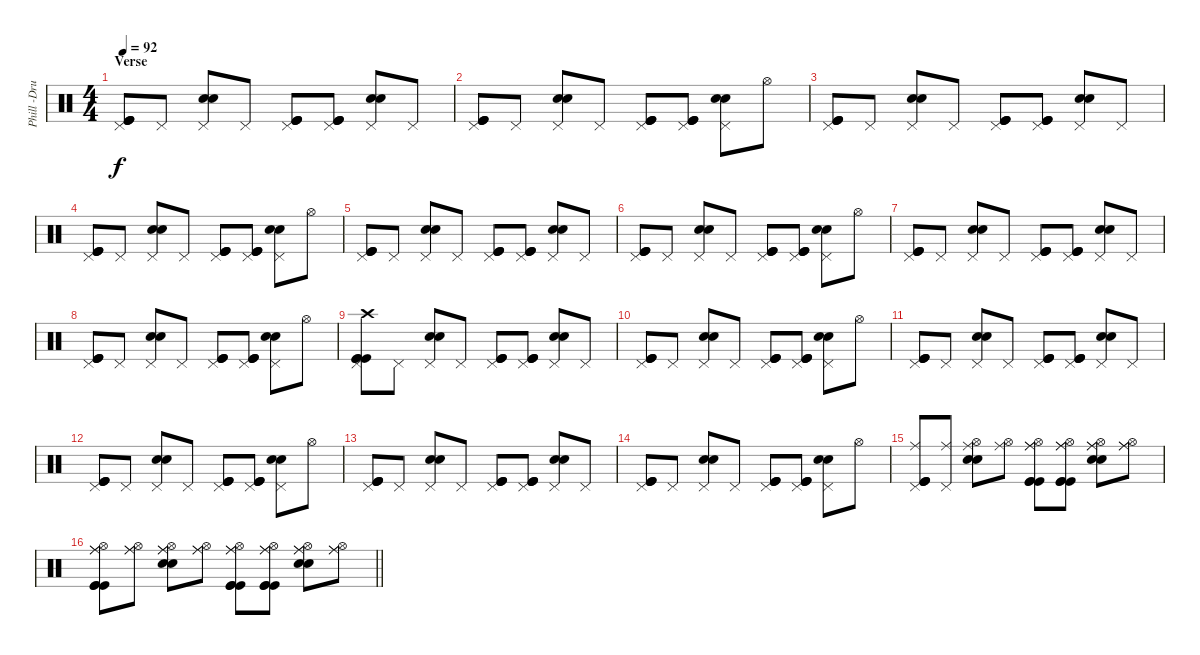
\track ("Phill -Drums" "Phill -Dru") {instrument percussion}
\staff {score}
\articulation defaults
\ts (4 4)
\section ("" "Verse")
\tempo 92
\clef neutral
\ks c
("Pedal Hi-Hat (hit)" "Kick (hit)" "Kick (hit)" "Kick (hit)").8{dy f} "Pedal Hi-Hat (hit)".8 ("Pedal Hi-Hat (hit)" "Snare (hit) 2" "Snare (hit) 2").8 "Pedal Hi-Hat (hit)".8 ("Pedal Hi-Hat (hit)" "Kick (hit)" "Kick (hit)" "Kick (hit)").8 ("Pedal Hi-Hat (hit)" "Kick (hit)" "Kick (hit)" "Kick (hit)").8 ("Pedal Hi-Hat (hit)" "Snare (hit) 2" "Snare (hit) 2").8 "Pedal Hi-Hat (hit)".8 |
("Pedal Hi-Hat (hit)" "Kick (hit)" "Kick (hit)" "Kick (hit)").8 "Pedal Hi-Hat (hit)".8 ("Pedal Hi-Hat (hit)" "Snare (hit) 2" "Snare (hit) 2").8 "Pedal Hi-Hat (hit)".8 ("Pedal Hi-Hat (hit)" "Kick (hit)" "Kick (hit)" "Kick (hit)").8 ("Pedal Hi-Hat (hit)" "Kick (hit)" "Kick (hit)" "Kick (hit)").8 ("Pedal Hi-Hat (hit)" "Snare (hit) 2" "Snare (hit) 2").8 "Hi-Hat (open)".8 |
("Pedal Hi-Hat (hit)" "Kick (hit)" "Kick (hit)" "Kick (hit)").8 "Pedal Hi-Hat (hit)".8 ("Pedal Hi-Hat (hit)" "Snare (hit) 2" "Snare (hit) 2").8 "Pedal Hi-Hat (hit)".8 ("Pedal Hi-Hat (hit)" "Kick (hit)" "Kick (hit)" "Kick (hit)").8 ("Pedal Hi-Hat (hit)" "Kick (hit)" "Kick (hit)" "Kick (hit)").8 ("Pedal Hi-Hat (hit)" "Snare (hit) 2" "Snare (hit) 2").8 "Pedal Hi-Hat (hit)".8 |
("Pedal Hi-Hat (hit)" "Kick (hit)" "Kick (hit)" "Kick (hit)").8 "Pedal Hi-Hat (hit)".8 ("Pedal Hi-Hat (hit)" "Snare (hit) 2" "Snare (hit) 2").8 "Pedal Hi-Hat (hit)".8 ("Pedal Hi-Hat (hit)" "Kick (hit)" "Kick (hit)" "Kick (hit)").8 ("Pedal Hi-Hat (hit)" "Kick (hit)" "Kick (hit)" "Kick (hit)").8 ("Pedal Hi-Hat (hit)" "Snare (hit) 2" "Snare (hit) 2").8 "Hi-Hat (open)".8 |
("Pedal Hi-Hat (hit)" "Kick (hit)" "Kick (hit)" "Kick (hit)").8 "Pedal Hi-Hat (hit)".8 ("Pedal Hi-Hat (hit)" "Snare (hit) 2" "Snare (hit) 2").8 "Pedal Hi-Hat (hit)".8 ("Pedal Hi-Hat (hit)" "Kick (hit)" "Kick (hit)" "Kick (hit)").8 ("Pedal Hi-Hat (hit)" "Kick (hit)" "Kick (hit)" "Kick (hit)").8 ("Pedal Hi-Hat (hit)" "Snare (hit) 2" "Snare (hit) 2").8 "Pedal Hi-Hat (hit)".8 |
("Pedal Hi-Hat (hit)" "Kick (hit)" "Kick (hit)" "Kick (hit)").8 "Pedal Hi-Hat (hit)".8 ("Pedal Hi-Hat (hit)" "Snare (hit) 2" "Snare (hit) 2").8 "Pedal Hi-Hat (hit)".8 ("Pedal Hi-Hat (hit)" "Kick (hit)" "Kick (hit)" "Kick (hit)").8 ("Pedal Hi-Hat (hit)" "Kick (hit)" "Kick (hit)" "Kick (hit)").8 ("Pedal Hi-Hat (hit)" "Snare (hit) 2" "Snare (hit) 2").8 "Hi-Hat (open)".8 |
("Pedal Hi-Hat (hit)" "Kick (hit)" "Kick (hit)" "Kick (hit)").8 "Pedal Hi-Hat (hit)".8 ("Pedal Hi-Hat (hit)" "Snare (hit) 2" "Snare (hit) 2").8 "Pedal Hi-Hat (hit)".8 ("Pedal Hi-Hat (hit)" "Kick (hit)" "Kick (hit)" "Kick (hit)").8 ("Pedal Hi-Hat (hit)" "Kick (hit)" "Kick (hit)" "Kick (hit)").8 ("Pedal Hi-Hat (hit)" "Snare (hit) 2" "Snare (hit) 2").8 "Pedal Hi-Hat (hit)".8 |
("Pedal Hi-Hat (hit)" "Kick (hit)" "Kick (hit)" "Kick (hit)").8 "Pedal Hi-Hat (hit)".8 ("Pedal Hi-Hat (hit)" "Snare (hit) 2" "Snare (hit) 2").8 "Pedal Hi-Hat (hit)".8 ("Pedal Hi-Hat (hit)" "Kick (hit)" "Kick (hit)" "Kick (hit)").8 ("Pedal Hi-Hat (hit)" "Kick (hit)" "Kick (hit)" "Kick (hit)").8 ("Pedal Hi-Hat (hit)" "Snare (hit) 2" "Snare (hit) 2").8 "Hi-Hat (open)".8 |
("Pedal Hi-Hat (hit)" "Crash high (hit)" "Kick (hit)" "Kick (hit)" "Kick (hit)").8 "Pedal Hi-Hat (hit)".8 ("Pedal Hi-Hat (hit)" "Snare (hit) 2" "Snare (hit) 2").8 "Pedal Hi-Hat (hit)".8 ("Pedal Hi-Hat (hit)" "Kick (hit)" "Kick (hit)" "Kick (hit)").8 ("Pedal Hi-Hat (hit)" "Kick (hit)" "Kick (hit)" "Kick (hit)").8 ("Pedal Hi-Hat (hit)" "Snare (hit) 2" "Snare (hit) 2").8 "Pedal Hi-Hat (hit)".8 |
("Pedal Hi-Hat (hit)" "Kick (hit)" "Kick (hit)" "Kick (hit)").8 "Pedal Hi-Hat (hit)".8 ("Pedal Hi-Hat (hit)" "Snare (hit) 2" "Snare (hit) 2").8 "Pedal Hi-Hat (hit)".8 ("Pedal Hi-Hat (hit)" "Kick (hit)" "Kick (hit)" "Kick (hit)").8 ("Pedal Hi-Hat (hit)" "Kick (hit)" "Kick (hit)" "Kick (hit)").8 ("Pedal Hi-Hat (hit)" "Snare (hit) 2" "Snare (hit) 2").8 "Hi-Hat (open)".8 |
("Pedal Hi-Hat (hit)" "Kick (hit)" "Kick (hit)" "Kick (hit)").8 "Pedal Hi-Hat (hit)".8 ("Pedal Hi-Hat (hit)" "Snare (hit) 2" "Snare (hit) 2").8 "Pedal Hi-Hat (hit)".8 ("Pedal Hi-Hat (hit)" "Kick (hit)" "Kick (hit)" "Kick (hit)").8 ("Pedal Hi-Hat (hit)" "Kick (hit)" "Kick (hit)" "Kick (hit)").8 ("Pedal Hi-Hat (hit)" "Snare (hit) 2" "Snare (hit) 2").8 "Pedal Hi-Hat (hit)".8 |
("Pedal Hi-Hat (hit)" "Kick (hit)" "Kick (hit)" "Kick (hit)").8 "Pedal Hi-Hat (hit)".8 ("Pedal Hi-Hat (hit)" "Snare (hit) 2" "Snare (hit) 2").8 "Pedal Hi-Hat (hit)".8 ("Pedal Hi-Hat (hit)" "Kick (hit)" "Kick (hit)" "Kick (hit)").8 ("Pedal Hi-Hat (hit)" "Kick (hit)" "Kick (hit)" "Kick (hit)").8 ("Pedal Hi-Hat (hit)" "Snare (hit) 2" "Snare (hit) 2").8 "Hi-Hat (open)".8 |
("Pedal Hi-Hat (hit)" "Kick (hit)" "Kick (hit)" "Kick (hit)").8 "Pedal Hi-Hat (hit)".8 ("Pedal Hi-Hat (hit)" "Snare (hit) 2" "Snare (hit) 2").8 "Pedal Hi-Hat (hit)".8 ("Pedal Hi-Hat (hit)" "Kick (hit)" "Kick (hit)" "Kick (hit)").8 ("Pedal Hi-Hat (hit)" "Kick (hit)" "Kick (hit)" "Kick (hit)").8 ("Pedal Hi-Hat (hit)" "Snare (hit) 2" "Snare (hit) 2").8 "Pedal Hi-Hat (hit)".8 |
("Pedal Hi-Hat (hit)" "Kick (hit)" "Kick (hit)" "Kick (hit)").8 "Pedal Hi-Hat (hit)".8 ("Pedal Hi-Hat (hit)" "Snare (hit) 2" "Snare (hit) 2").8 "Pedal Hi-Hat (hit)".8 ("Pedal Hi-Hat (hit)" "Kick (hit)" "Kick (hit)" "Kick (hit)").8 ("Pedal Hi-Hat (hit)" "Kick (hit)" "Kick (hit)" "Kick (hit)").8 ("Pedal Hi-Hat (hit)" "Snare (hit) 2" "Snare (hit) 2").8 "Hi-Hat (open)".8 |
("Pedal Hi-Hat (hit)" "Ride (middle)" "Kick (hit)" "Kick (hit)" "Kick (hit)").8 ("Pedal Hi-Hat (hit)" "Ride (middle)").8 ("Hi-Hat (open)" "Ride (middle)" "Snare (hit) 2" "Snare (hit) 2").8 ("Hi-Hat (open)" "Ride (middle)").8 ("Hi-Hat (open)" "Ride (middle)" "Ride (middle)" "Kick (hit)" "Kick (hit)" "Kick (hit)").8 ("Hi-Hat (open)" "Ride (middle)" "Ride (middle)" "Kick (hit)" "Kick (hit)" "Kick (hit)").8 ("Hi-Hat (open)" "Ride (middle)" "Ride (middle)" "Snare (hit) 2" "Snare (hit) 2").8 ("Hi-Hat (open)" "Ride (middle)" "Ride (middle)").8 |
\barLineRight lightlight
("Hi-Hat (open)" "Ride (middle)" "Ride (middle)" "Kick (hit)" "Kick (hit)" "Kick (hit)").8 ("Hi-Hat (open)" "Ride (middle)" "Ride (middle)").8 ("Hi-Hat (open)" "Ride (middle)" "Ride (middle)" "Snare (hit) 2" "Snare (hit) 2").8 ("Hi-Hat (open)" "Ride (middle)" "Ride (middle)").8 ("Hi-Hat (open)" "Ride (middle)" "Ride (middle)" "Kick (hit)" "Kick (hit)" "Kick (hit)").8 ("Hi-Hat (open)" "Ride (middle)" "Ride (middle)" "Kick (hit)" "Kick (hit)" "Kick (hit)").8 ("Hi-Hat (open)" "Ride (middle)" "Ride (middle)" "Snare (hit) 2" "Snare (hit) 2").8 ("Hi-Hat (open)" "Ride (middle)" "Ride (middle)").8
